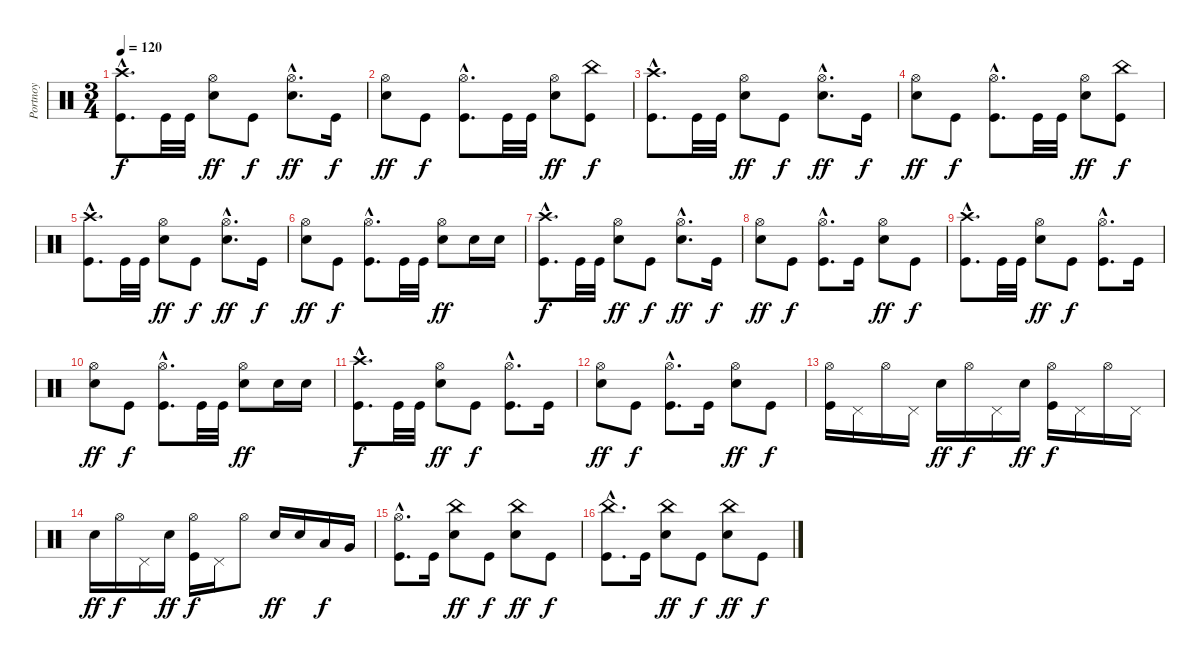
\track ("Portnoy" "Portnoy") {instrument percussion}
\staff {score}
\articulation defaults
\ts (3 4)
\tempo 120
\clef neutral
\ks c
("Crash high (hit)"{hac} "Kick (hit)"{hac}).8{d dy f} "Kick (hit)".32 "Kick (hit)".32 ("Hi-Hat (open)" "Electric Snare (hit)").8{dy ff} "Kick (hit)".8{dy f} ("Hi-Hat (open)"{hac} "Electric Snare (hit)"{hac}).8{d dy ff} "Kick (hit)".16{dy f} |
("Hi-Hat (open)" "Electric Snare (hit)").8{dy ff} "Kick (hit)".8{dy f} ("Hi-Hat (open)"{hac} "Kick (hit)"{hac}).8{d} "Kick (hit)".32 "Kick (hit)".32 ("Hi-Hat (open)" "Electric Snare (hit)").8{dy ff} ("China (hit)" "Kick (hit)").8{dy f} |
("Crash high (hit)"{hac} "Kick (hit)"{hac}).8{d} "Kick (hit)".32 "Kick (hit)".32 ("Hi-Hat (open)" "Electric Snare (hit)").8{dy ff} "Kick (hit)".8{dy f} ("Hi-Hat (open)"{hac} "Electric Snare (hit)"{hac}).8{d dy ff} "Kick (hit)".16{dy f} |
("Hi-Hat (open)" "Electric Snare (hit)").8{dy ff} "Kick (hit)".8{dy f} ("Hi-Hat (open)"{hac} "Kick (hit)"{hac}).8{d} "Kick (hit)".32 "Kick (hit)".32 ("Hi-Hat (open)" "Electric Snare (hit)").8{dy ff} ("China (hit)" "Kick (hit)").8{dy f} |
("Crash high (hit)"{hac} "Kick (hit)"{hac}).8{d} "Kick (hit)".32 "Kick (hit)".32 ("Hi-Hat (open)" "Electric Snare (hit)").8{dy ff} "Kick (hit)".8{dy f} ("Hi-Hat (open)"{hac} "Electric Snare (hit)"{hac}).8{d dy ff} "Kick (hit)".16{dy f} |
("Hi-Hat (open)" "Electric Snare (hit)").8{dy ff} "Kick (hit)".8{dy f} ("Hi-Hat (open)"{hac} "Kick (hit)"{hac}).8{d} "Kick (hit)".32 "Kick (hit)".32 ("Hi-Hat (open)" "Electric Snare (hit)").8{dy ff} "Electric Snare (hit)".16 "Electric Snare (hit)".16 |
("Crash high (hit)"{hac} "Kick (hit)"{hac}).8{d dy f} "Kick (hit)".32 "Kick (hit)".32 ("Hi-Hat (open)" "Electric Snare (hit)").8{dy ff} "Kick (hit)".8{dy f} ("Hi-Hat (open)"{hac} "Electric Snare (hit)"{hac}).8{d dy ff} "Kick (hit)".16{dy f} |
("Hi-Hat (open)" "Electric Snare (hit)").8{dy ff} "Kick (hit)".8{dy f} ("Hi-Hat (open)"{hac} "Kick (hit)"{hac}).8{d} "Kick (hit)".16 ("Hi-Hat (open)" "Electric Snare (hit)").8{dy ff} "Kick (hit)".8{dy f} |
("Crash high (hit)"{hac} "Kick (hit)"{hac}).8{d} "Kick (hit)".32 "Kick (hit)".32 ("Hi-Hat (open)" "Electric Snare (hit)").8{dy ff} "Kick (hit)".8{dy f} ("Hi-Hat (open)"{hac} "Kick (hit)"{hac}).8{d} "Kick (hit)".16 |
("Hi-Hat (open)" "Electric Snare (hit)").8{dy ff} "Kick (hit)".8{dy f} ("Hi-Hat (open)"{hac} "Kick (hit)"{hac}).8{d} "Kick (hit)".32 "Kick (hit)".32 ("Hi-Hat (open)" "Electric Snare (hit)").8{dy ff} "Electric Snare (hit)".16 "Electric Snare (hit)".16 |
("Crash high (hit)"{hac} "Kick (hit)"{hac}).8{d dy f} "Kick (hit)".32 "Kick (hit)".32 ("Hi-Hat (open)" "Electric Snare (hit)").8{dy ff} "Kick (hit)".8{dy f} ("Hi-Hat (open)"{hac} "Kick (hit)"{hac}).8{d} "Kick (hit)".16 |
("Hi-Hat (open)" "Electric Snare (hit)").8{dy ff} "Kick (hit)".8{dy f} ("Hi-Hat (open)"{hac} "Kick (hit)"{hac}).8{d} "Kick (hit)".16 ("Hi-Hat (open)" "Electric Snare (hit)").8{dy ff} "Kick (hit)".8{dy f} |
("Hi-Hat (open)" "Kick (hit)").16 "Pedal Hi-Hat (hit)".16 "Hi-Hat (open)".16 "Pedal Hi-Hat (hit)".16 "Electric Snare (hit)".16{dy ff} "Hi-Hat (open)".16{dy f} "Pedal Hi-Hat (hit)".16 "Electric Snare (hit)".16{dy ff} ("Hi-Hat (open)" "Kick (hit)").16{dy f} "Pedal Hi-Hat (hit)".16 "Hi-Hat (open)".16 "Pedal Hi-Hat (hit)".16 |
"Electric Snare (hit)".16{dy ff} "Hi-Hat (open)".16{dy f} "Pedal Hi-Hat (hit)".16 "Electric Snare (hit)".16{dy ff} ("Hi-Hat (open)" "Kick (hit)").16{dy f} "Pedal Hi-Hat (hit)".16 "Hi-Hat (open)".8 "Electric Snare (hit)".16{dy ff} "Electric Snare (hit)".16 "Low Tom (hit)".16{dy f} "Very Low Tom (hit)".16 |
("Hi-Hat (open)"{hac} "Kick (hit)"{hac}).8{d} "Kick (hit)".16 ("China (hit)" "Electric Snare (hit)").8{dy ff} "Kick (hit)".8{dy f} ("China (hit)" "Electric Snare (hit)").8{dy ff} "Kick (hit)".8{dy f} |
("China (hit)"{hac} "Kick (hit)"{hac}).8{d} "Kick (hit)".16 ("China (hit)" "Electric Snare (hit)").8{dy ff} "Kick (hit)".8{dy f} ("China (hit)" "Electric Snare (hit)").8{dy ff} "Kick (hit)".8{dy f}
